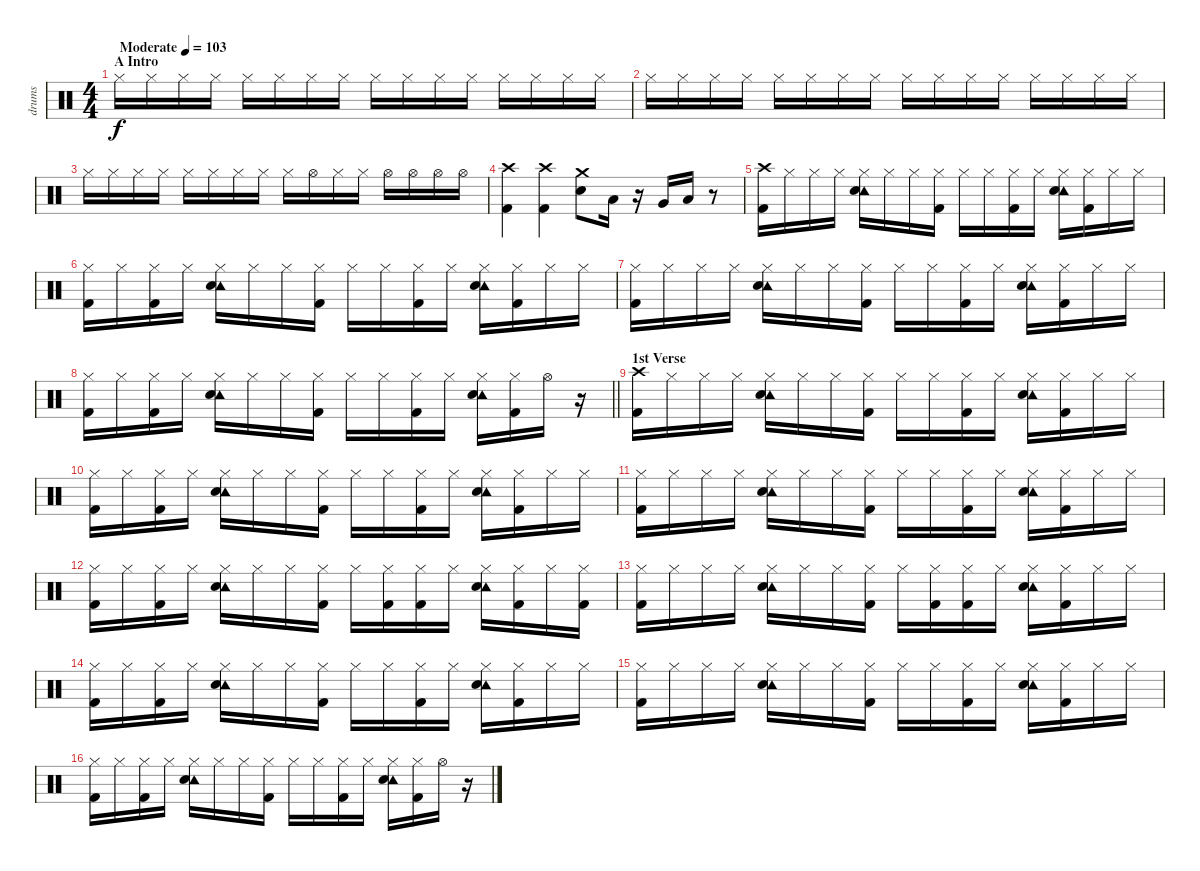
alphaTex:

\track ("drums" "drums") {instrument percussion}
\staff {score}
\articulation defaults
\ts (4 4)
\section ("" "A Intro")
\tempo (103 "Moderate")
\clef neutral
\ks c "Hi-Hat (closed)".16{dy f} "Hi-Hat (closed)".16 "Hi-Hat (closed)".16 "Hi-Hat (closed)".16 "Hi-Hat (closed)".16 "Hi-Hat (closed)".16 "Hi-Hat (closed)".16 "Hi-Hat (closed)".16 "Hi-Hat (closed)".16 "Hi-Hat (closed)".16 "Hi-Hat (closed)".16 "Hi-Hat (closed)".16 "Hi-Hat (closed)".16 "Hi-Hat (closed)".16 "Hi-Hat (closed)".16 "Hi-Hat (closed)".16
|
"Hi-Hat (closed)".16 "Hi-Hat (closed)".16 "Hi-Hat (closed)".16 "Hi-Hat (closed)".16 "Hi-Hat (closed)".16 "Hi-Hat (closed)".16 "Hi-Hat (closed)".16 "Hi-Hat (closed)".16 "Hi-Hat (closed)".16 "Hi-Hat (closed)".16 "Hi-Hat (closed)".16 "Hi-Hat (closed)".16 "Hi-Hat (closed)".16 "Hi-Hat (closed)".16 "Hi-Hat (closed)".16 "Hi-Hat (closed)".16 |
"Hi-Hat (closed)".16 "Hi-Hat (closed)".16 "Hi-Hat (closed)".16 "Hi-Hat (closed)".16 "Hi-Hat (closed)".16 "Hi-Hat (closed)".16 "Hi-Hat (closed)".16 "Hi-Hat (closed)".16 "Hi-Hat (closed)".16 "Hi-Hat (open)".16 "Hi-Hat (closed)".16 "Hi-Hat (closed)".16 "Hi-Hat (open)".16 "Hi-Hat (open)".16 "Hi-Hat (open)".16 "Hi-Hat (open)".16 |
("Crash high (hit)" "Kick (hit) 2").4 ("Crash high (hit)" "Kick (hit) 2").4 ("Crash medium (hit)" "Snare (hit) 2").8 "Low Tom (hit)".16 r.16 "Very Low Tom (hit)".16 "Low Floor Tom (hit)".16 r.8 |
("Crash high (hit)" "Kick (hit) 2").16 "Hi-Hat (closed)".16 "Hi-Hat (closed)".16 "Hi-Hat (closed)".16 ("Tambourine (hit)" "Snare (hit) 2" "Hi-Hat (closed)").16 "Hi-Hat (closed)".16 "Hi-Hat (closed)".16 ("Hi-Hat (closed)" "Kick (hit) 2").16 "Hi-Hat (closed)".16 "Hi-Hat (closed)".16 ("Hi-Hat (closed)" "Kick (hit) 2").16 "Hi-Hat (closed)".16 ("Tambourine (hit)" "Snare (hit) 2" "Hi-Hat (closed)").16 ("Hi-Hat (closed)" "Kick (hit) 2").16 "Hi-Hat (closed)".16 "Hi-Hat (closed)".16 |
("Hi-Hat (closed)" "Kick (hit) 2").16 "Hi-Hat (closed)".16 ("Hi-Hat (closed)" "Kick (hit) 2").16 "Hi-Hat (closed)".16 ("Tambourine (hit)" "Snare (hit) 2" "Hi-Hat (closed)").16 "Hi-Hat (closed)".16 "Hi-Hat (closed)".16 ("Hi-Hat (closed)" "Kick (hit) 2").16 "Hi-Hat (closed)".16 "Hi-Hat (closed)".16 ("Hi-Hat (closed)" "Kick (hit) 2").16 "Hi-Hat (closed)".16 ("Tambourine (hit)" "Snare (hit) 2" "Hi-Hat (closed)").16 ("Hi-Hat (closed)" "Kick (hit) 2").16 "Hi-Hat (closed)".16 "Hi-Hat (closed)".16 |
("Hi-Hat (closed)" "Kick (hit) 2").16 "Hi-Hat (closed)".16 "Hi-Hat (closed)".16 "Hi-Hat (closed)".16 ("Tambourine (hit)" "Snare (hit) 2" "Hi-Hat (closed)").16 "Hi-Hat (closed)".16 "Hi-Hat (closed)".16 ("Hi-Hat (closed)" "Kick (hit) 2").16 "Hi-Hat (closed)".16 "Hi-Hat (closed)".16 ("Hi-Hat (closed)" "Kick (hit) 2").16 "Hi-Hat (closed)".16 ("Tambourine (hit)" "Snare (hit) 2" "Hi-Hat (closed)").16 ("Hi-Hat (closed)" "Kick (hit) 2").16 "Hi-Hat (closed)".16 "Hi-Hat (closed)".16 |
\barLineRight lightlight
("Hi-Hat (closed)" "Kick (hit) 2").16 "Hi-Hat (closed)".16 ("Hi-Hat (closed)" "Kick (hit) 2").16 "Hi-Hat (closed)".16 ("Tambourine (hit)" "Snare (hit) 2" "Hi-Hat (closed)").16 "Hi-Hat (closed)".16 "Hi-Hat (closed)".16 ("Hi-Hat (closed)" "Kick (hit) 2").16 "Hi-Hat (closed)".16 "Hi-Hat (closed)".16 ("Hi-Hat (closed)" "Kick (hit) 2").16 "Hi-Hat (closed)".16 ("Tambourine (hit)" "Snare (hit) 2" "Hi-Hat (closed)").16 ("Hi-Hat (closed)" "Kick (hit) 2").16 "Hi-Hat (open)".16 r.16 |
\section ("" "1st Verse")
("Crash high (hit)" "Kick (hit) 2").16 "Hi-Hat (closed)".16 "Hi-Hat (closed)".16 "Hi-Hat (closed)".16 ("Tambourine (hit)" "Snare (hit) 2" "Hi-Hat (closed)").16 "Hi-Hat (closed)".16 "Hi-Hat (closed)".16 ("Hi-Hat (closed)" "Kick (hit) 2").16 "Hi-Hat (closed)".16 "Hi-Hat (closed)".16 ("Hi-Hat (closed)" "Kick (hit) 2").16 "Hi-Hat (closed)".16 ("Tambourine (hit)" "Snare (hit) 2" "Hi-Hat (closed)").16 ("Hi-Hat (closed)" "Kick (hit) 2").16 "Hi-Hat (closed)".16 "Hi-Hat (closed)".16 |
("Hi-Hat (closed)" "Kick (hit) 2").16 "Hi-Hat (closed)".16 ("Hi-Hat (closed)" "Kick (hit) 2").16 "Hi-Hat (closed)".16 ("Tambourine (hit)" "Snare (hit) 2" "Hi-Hat (closed)").16 "Hi-Hat (closed)".16 "Hi-Hat (closed)".16 ("Hi-Hat (closed)" "Kick (hit) 2").16 "Hi-Hat (closed)".16 "Hi-Hat (closed)".16 ("Hi-Hat (closed)" "Kick (hit) 2").16 "Hi-Hat (closed)".16 ("Tambourine (hit)" "Snare (hit) 2" "Hi-Hat (closed)").16 ("Hi-Hat (closed)" "Kick (hit) 2").16 "Hi-Hat (closed)".16 "Hi-Hat (closed)".16 |
("Hi-Hat (closed)" "Kick (hit) 2").16 "Hi-Hat (closed)".16 "Hi-Hat (closed)".16 "Hi-Hat (closed)".16 ("Tambourine (hit)" "Snare (hit) 2" "Hi-Hat (closed)").16 "Hi-Hat (closed)".16 "Hi-Hat (closed)".16 ("Hi-Hat (closed)" "Kick (hit) 2").16 "Hi-Hat (closed)".16 "Hi-Hat (closed)".16 ("Hi-Hat (closed)" "Kick (hit) 2").16 "Hi-Hat (closed)".16 ("Tambourine (hit)" "Snare (hit) 2" "Hi-Hat (closed)").16 ("Hi-Hat (closed)" "Kick (hit) 2").16 "Hi-Hat (closed)".16 "Hi-Hat (closed)".16 |
("Hi-Hat (closed)" "Kick (hit) 2").16 "Hi-Hat (closed)".16 ("Hi-Hat (closed)" "Kick (hit) 2").16 "Hi-Hat (closed)".16 ("Tambourine (hit)" "Snare (hit) 2" "Hi-Hat (closed)").16 "Hi-Hat (closed)".16 "Hi-Hat (closed)".16 ("Hi-Hat (closed)" "Kick (hit) 2").16 "Hi-Hat (closed)".16 ("Hi-Hat (closed)" "Kick (hit) 2").16 ("Hi-Hat (closed)" "Kick (hit) 2").16 "Hi-Hat (closed)".16 ("Tambourine (hit)" "Snare (hit) 2" "Hi-Hat (closed)").16 ("Hi-Hat (closed)" "Kick (hit) 2").16 "Hi-Hat (closed)".16 ("Hi-Hat (closed)" "Kick (hit) 2").16 |
("Hi-Hat (closed)" "Kick (hit) 2").16 "Hi-Hat (closed)".16 "Hi-Hat (closed)".16 "Hi-Hat (closed)".16 ("Tambourine (hit)" "Snare (hit) 2" "Hi-Hat (closed)").16 "Hi-Hat (closed)".16 "Hi-Hat (closed)".16 ("Hi-Hat (closed)" "Kick (hit) 2").16 "Hi-Hat (closed)".16 ("Hi-Hat (closed)" "Kick (hit) 2").16 ("Hi-Hat (closed)" "Kick (hit) 2").16 "Hi-Hat (closed)".16 ("Tambourine (hit)" "Snare (hit) 2" "Hi-Hat (closed)").16 ("Hi-Hat (closed)" "Kick (hit) 2").16 "Hi-Hat (closed)".16 "Hi-Hat (closed)".16 |
("Hi-Hat (closed)" "Kick (hit) 2").16 "Hi-Hat (closed)".16 ("Hi-Hat (closed)" "Kick (hit) 2").16 "Hi-Hat (closed)".16 ("Tambourine (hit)" "Snare (hit) 2" "Hi-Hat (closed)").16 "Hi-Hat (closed)".16 "Hi-Hat (closed)".16 ("Hi-Hat (closed)" "Kick (hit) 2").16 "Hi-Hat (closed)".16 "Hi-Hat (closed)".16 ("Hi-Hat (closed)" "Kick (hit) 2").16 "Hi-Hat (closed)".16 ("Tambourine (hit)" "Snare (hit) 2" "Hi-Hat (closed)").16 ("Hi-Hat (closed)" "Kick (hit) 2").16 "Hi-Hat (closed)".16 "Hi-Hat (closed)".16 |
("Hi-Hat (closed)" "Kick (hit) 2").16 "Hi-Hat (closed)".16 "Hi-Hat (closed)".16 "Hi-Hat (closed)".16 ("Tambourine (hit)" "Snare (hit) 2" "Hi-Hat (closed)").16 "Hi-Hat (closed)".16 "Hi-Hat (closed)".16 ("Hi-Hat (closed)" "Kick (hit) 2").16 "Hi-Hat (closed)".16 "Hi-Hat (closed)".16 ("Hi-Hat (closed)" "Kick (hit) 2").16 "Hi-Hat (closed)".16 ("Tambourine (hit)" "Snare (hit) 2" "Hi-Hat (closed)").16 ("Hi-Hat (closed)" "Kick (hit) 2").16 "Hi-Hat (closed)".16 "Hi-Hat (closed)".16 |
("Hi-Hat (closed)" "Kick (hit) 2").16 "Hi-Hat (closed)".16 ("Hi-Hat (closed)" "Kick (hit) 2").16 "Hi-Hat (closed)".16 ("Tambourine (hit)" "Snare (hit) 2" "Hi-Hat (closed)").16 "Hi-Hat (closed)".16 "Hi-Hat (closed)".16 ("Hi-Hat (closed)" "Kick (hit) 2").16 "Hi-Hat (closed)".16 "Hi-Hat (closed)".16 ("Hi-Hat (closed)" "Kick (hit) 2").16 "Hi-Hat (closed)".16 ("Tambourine (hit)" "Snare (hit) 2" "Hi-Hat (closed)").16 ("Hi-Hat (closed)" "Kick (hit) 2").16 "Hi-Hat (open)".16 r.16
